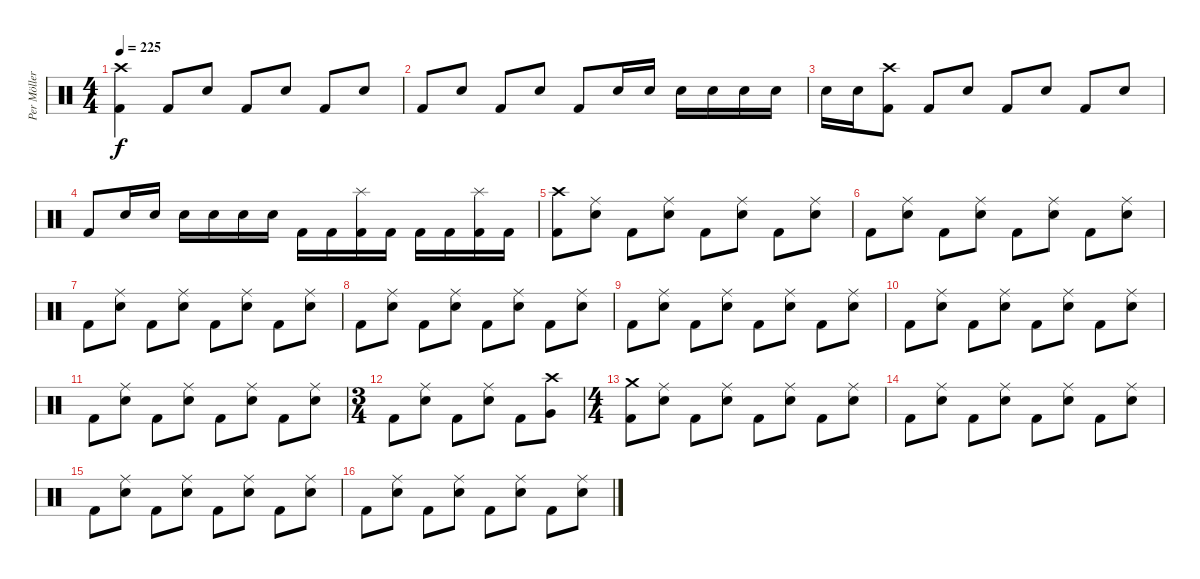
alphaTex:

\track ("Per Möller Jensen" "Per Möller") {instrument percussion}
\staff {score}
\articulation defaults
\ts (4 4)
\tempo 225
\clef neutral
\ks c
("Crash high (hit)" "Kick (hit) 2").4{dy f} "Kick (hit) 2".8 "Snare (hit) 2".8 "Kick (hit) 2".8 "Snare (hit) 2".8 "Kick (hit) 2".8 "Snare (hit) 2".8 |
"Kick (hit) 2".8 "Snare (hit) 2".8 "Kick (hit) 2".8 "Snare (hit) 2".8 "Kick (hit) 2".8 "Snare (hit) 2".16 "Snare (hit) 2".16 "Snare (hit) 2".16 "Snare (hit) 2".16 "Snare (hit) 2".16 "Snare (hit) 2".16 |
"Snare (hit) 2".16 "Snare (hit) 2".16 ("Crash high (hit)" "Kick (hit) 2").8 "Kick (hit) 2".8 "Snare (hit) 2".8 "Kick (hit) 2".8 "Snare (hit) 2".8 "Kick (hit) 2".8 "Snare (hit) 2".8 |
"Kick (hit) 2".8 "Snare (hit) 2".16 "Snare (hit) 2".16 "Snare (hit) 2".16 "Snare (hit) 2".16 "Snare (hit) 2".16 "Snare (hit) 2".16 "Kick (hit) 2".16 "Kick (hit) 2".16 ("Splash (hit)" "Kick (hit) 2").16 "Kick (hit) 2".16 "Kick (hit) 2".16 "Kick (hit) 2".16 ("Splash (hit)" "Kick (hit) 2").16 "Kick (hit) 2".16 |
("Crash high (hit)" "Kick (hit) 2").8 ("Ride (middle)" "Snare (hit) 2").8 "Kick (hit) 2".8 ("Ride (middle)" "Snare (hit) 2").8 "Kick (hit) 2".8 ("Ride (middle)" "Snare (hit) 2").8 "Kick (hit) 2".8 ("Ride (middle)" "Snare (hit) 2").8 |
"Kick (hit) 2".8 ("Ride (middle)" "Snare (hit) 2").8 "Kick (hit) 2".8 ("Ride (middle)" "Snare (hit) 2").8 "Kick (hit) 2".8 ("Ride (middle)" "Snare (hit) 2").8 "Kick (hit) 2".8 ("Ride (middle)" "Snare (hit) 2").8 |
"Kick (hit) 2".8 ("Ride (middle)" "Snare (hit) 2").8 "Kick (hit) 2".8 ("Ride (middle)" "Snare (hit) 2").8 "Kick (hit) 2".8 ("Ride (middle)" "Snare (hit) 2").8 "Kick (hit) 2".8 ("Ride (middle)" "Snare (hit) 2").8 |
"Kick (hit) 2".8 ("Ride (middle)" "Snare (hit) 2").8 "Kick (hit) 2".8 ("Ride (middle)" "Snare (hit) 2").8 "Kick (hit) 2".8 ("Ride (middle)" "Snare (hit) 2").8 "Kick (hit) 2".8 ("Ride (middle)" "Snare (hit) 2").8 |
"Kick (hit) 2".8 ("Ride (middle)" "Snare (hit) 2").8 "Kick (hit) 2".8 ("Ride (middle)" "Snare (hit) 2").8 "Kick (hit) 2".8 ("Ride (middle)" "Snare (hit) 2").8 "Kick (hit) 2".8 ("Ride (middle)" "Snare (hit) 2").8 |
"Kick (hit) 2".8 ("Ride (middle)" "Snare (hit) 2").8 "Kick (hit) 2".8 ("Ride (middle)" "Snare (hit) 2").8 "Kick (hit) 2".8 ("Ride (middle)" "Snare (hit) 2").8 "Kick (hit) 2".8 ("Ride (middle)" "Snare (hit) 2").8 |
"Kick (hit) 2".8 ("Ride (middle)" "Snare (hit) 2").8 "Kick (hit) 2".8 ("Ride (middle)" "Snare (hit) 2").8 "Kick (hit) 2".8 ("Ride (middle)" "Snare (hit) 2").8 "Kick (hit) 2".8 ("Ride (middle)" "Snare (hit) 2").8 |
\ts (3 4)
"Kick (hit) 2".8 ("Ride (middle)" "Snare (hit) 2").8 "Kick (hit) 2".8 ("Ride (middle)" "Snare (hit) 2").8 "Kick (hit) 2".8 ("Crash high (hit)" "Very Low Tom (hit)").8 |
\ts (4 4)
("Crash medium (hit)" "Kick (hit) 2").8 ("Ride (middle)" "Snare (hit) 2").8 "Kick (hit) 2".8 ("Ride (middle)" "Snare (hit) 2").8 "Kick (hit) 2".8 ("Ride (middle)" "Snare (hit) 2").8 "Kick (hit) 2".8 ("Ride (middle)" "Snare (hit) 2").8 |
"Kick (hit) 2".8 ("Ride (middle)" "Snare (hit) 2").8 "Kick (hit) 2".8 ("Ride (middle)" "Snare (hit) 2").8 "Kick (hit) 2".8 ("Ride (middle)" "Snare (hit) 2").8 "Kick (hit) 2".8 ("Ride (middle)" "Snare (hit) 2").8 |
"Kick (hit) 2".8 ("Ride (middle)" "Snare (hit) 2").8 "Kick (hit) 2".8 ("Ride (middle)" "Snare (hit) 2").8 "Kick (hit) 2".8 ("Ride (middle)" "Snare (hit) 2").8 "Kick (hit) 2".8 ("Ride (middle)" "Snare (hit) 2").8 |
"Kick (hit) 2".8 ("Ride (middle)" "Snare (hit) 2").8 "Kick (hit) 2".8 ("Ride (middle)" "Snare (hit) 2").8 "Kick (hit) 2".8 ("Ride (middle)" "Snare (hit) 2").8 "Kick (hit) 2".8 ("Ride (middle)" "Snare (hit) 2").8
